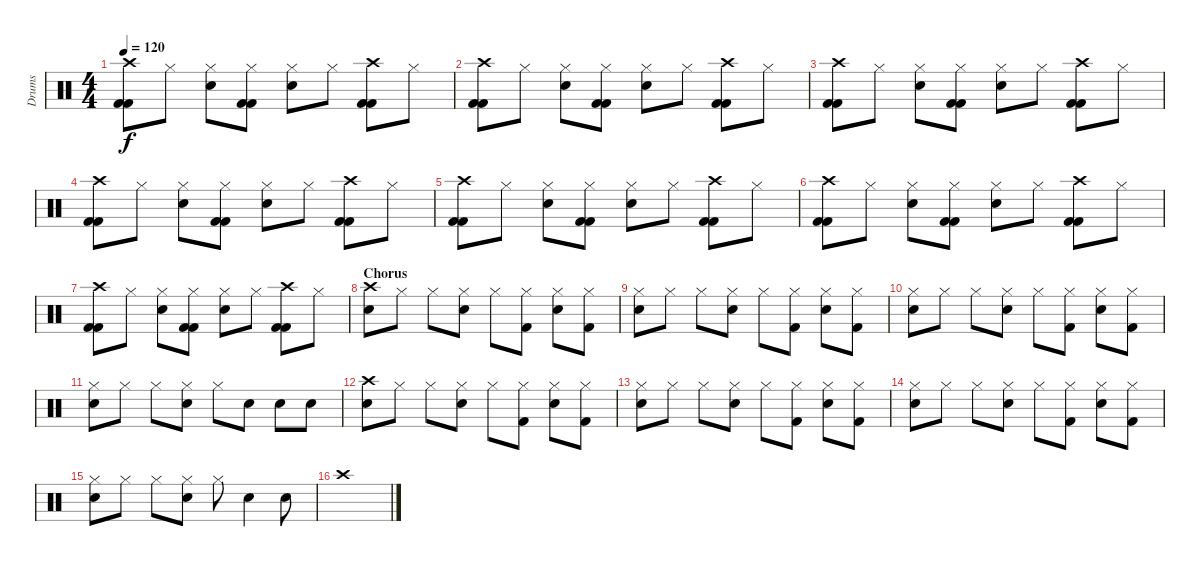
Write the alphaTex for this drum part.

\track ("Drums" "Drums") {instrument percussion}
\staff {score}
\articulation defaults
\ts (4 4)
\tempo 120
\clef neutral
\ks c
("Crash high (hit)" "Kick (hit) 2" "Kick (hit) 2").8{dy f} "Hi-Hat (closed)".8 ("Hi-Hat (closed)" "Snare (hit) 2").8 ("Hi-Hat (closed)" "Kick (hit) 2" "Kick (hit) 2").8 ("Hi-Hat (closed)" "Snare (hit) 2").8 "Hi-Hat (closed)".8 ("Crash high (hit)" "Kick (hit) 2" "Kick (hit) 2").8 "Hi-Hat (closed)".8 |
("Crash high (hit)" "Kick (hit) 2" "Kick (hit) 2").8 "Hi-Hat (closed)".8 ("Hi-Hat (closed)" "Snare (hit) 2").8 ("Hi-Hat (closed)" "Kick (hit) 2" "Kick (hit) 2").8 ("Hi-Hat (closed)" "Snare (hit) 2").8 "Hi-Hat (closed)".8 ("Crash high (hit)" "Kick (hit) 2" "Kick (hit) 2").8 "Hi-Hat (closed)".8 |
("Crash high (hit)" "Kick (hit) 2" "Kick (hit) 2").8 "Hi-Hat (closed)".8 ("Hi-Hat (closed)" "Snare (hit) 2").8 ("Hi-Hat (closed)" "Kick (hit) 2" "Kick (hit) 2").8 ("Hi-Hat (closed)" "Snare (hit) 2").8 "Hi-Hat (closed)".8 ("Crash high (hit)" "Kick (hit) 2" "Kick (hit) 2").8 "Hi-Hat (closed)".8 |
("Crash high (hit)" "Kick (hit) 2" "Kick (hit) 2").8 "Hi-Hat (closed)".8 ("Hi-Hat (closed)" "Snare (hit) 2").8 ("Hi-Hat (closed)" "Kick (hit) 2" "Kick (hit) 2").8 ("Hi-Hat (closed)" "Snare (hit) 2").8 "Hi-Hat (closed)".8 ("Crash high (hit)" "Kick (hit) 2" "Kick (hit) 2").8 "Hi-Hat (closed)".8 |
("Crash high (hit)" "Kick (hit) 2" "Kick (hit) 2").8 "Hi-Hat (closed)".8 ("Hi-Hat (closed)" "Snare (hit) 2").8 ("Hi-Hat (closed)" "Kick (hit) 2" "Kick (hit) 2").8 ("Hi-Hat (closed)" "Snare (hit) 2").8 "Hi-Hat (closed)".8 ("Crash high (hit)" "Kick (hit) 2" "Kick (hit) 2").8 "Hi-Hat (closed)".8 |
("Crash high (hit)" "Kick (hit) 2" "Kick (hit) 2").8 "Hi-Hat (closed)".8 ("Hi-Hat (closed)" "Snare (hit) 2").8 ("Hi-Hat (closed)" "Kick (hit) 2" "Kick (hit) 2").8 ("Hi-Hat (closed)" "Snare (hit) 2").8 "Hi-Hat (closed)".8 ("Crash high (hit)" "Kick (hit) 2" "Kick (hit) 2").8 "Hi-Hat (closed)".8 |
("Crash high (hit)" "Kick (hit) 2" "Kick (hit) 2").8 "Hi-Hat (closed)".8 ("Hi-Hat (closed)" "Snare (hit) 2").8 ("Hi-Hat (closed)" "Kick (hit) 2" "Kick (hit) 2").8 ("Hi-Hat (closed)" "Snare (hit) 2").8 "Hi-Hat (closed)".8 ("Crash high (hit)" "Kick (hit) 2" "Kick (hit) 2").8 "Hi-Hat (closed)".8 |
\section ("" "Chorus")
("Crash high (hit)" "Snare (hit) 2").8 "Hi-Hat (closed)".8 "Hi-Hat (closed)".8 ("Hi-Hat (closed)" "Snare (hit) 2").8 "Hi-Hat (closed)".8 ("Hi-Hat (closed)" "Kick (hit) 2").8 ("Hi-Hat (closed)" "Snare (hit) 2").8 ("Hi-Hat (closed)" "Kick (hit) 2").8 |
("Hi-Hat (closed)" "Snare (hit) 2").8 "Hi-Hat (closed)".8 "Hi-Hat (closed)".8 ("Hi-Hat (closed)" "Snare (hit) 2").8 "Hi-Hat (closed)".8 ("Hi-Hat (closed)" "Kick (hit) 2").8 ("Hi-Hat (closed)" "Snare (hit) 2").8 ("Hi-Hat (closed)" "Kick (hit) 2").8 |
("Hi-Hat (closed)" "Snare (hit) 2").8 "Hi-Hat (closed)".8 "Hi-Hat (closed)".8 ("Hi-Hat (closed)" "Snare (hit) 2").8 "Hi-Hat (closed)".8 ("Hi-Hat (closed)" "Kick (hit) 2").8 ("Hi-Hat (closed)" "Snare (hit) 2").8 ("Hi-Hat (closed)" "Kick (hit) 2").8 |
("Hi-Hat (closed)" "Snare (hit) 2").8 "Hi-Hat (closed)".8 "Hi-Hat (closed)".8 ("Hi-Hat (closed)" "Snare (hit) 2").8 "Hi-Hat (closed)".8 "Snare (hit) 2".8 "Snare (hit) 2".8 "Snare (hit) 2".8 |
("Crash high (hit)" "Snare (hit) 2").8 "Hi-Hat (closed)".8 "Hi-Hat (closed)".8 ("Hi-Hat (closed)" "Snare (hit) 2").8 "Hi-Hat (closed)".8 ("Hi-Hat (closed)" "Kick (hit) 2").8 ("Hi-Hat (closed)" "Snare (hit) 2").8 ("Hi-Hat (closed)" "Kick (hit) 2").8 |
("Hi-Hat (closed)" "Snare (hit) 2").8 "Hi-Hat (closed)".8 "Hi-Hat (closed)".8 ("Hi-Hat (closed)" "Snare (hit) 2").8 "Hi-Hat (closed)".8 ("Hi-Hat (closed)" "Kick (hit) 2").8 ("Hi-Hat (closed)" "Snare (hit) 2").8 ("Hi-Hat (closed)" "Kick (hit) 2").8 |
("Hi-Hat (closed)" "Snare (hit) 2").8 "Hi-Hat (closed)".8 "Hi-Hat (closed)".8 ("Hi-Hat (closed)" "Snare (hit) 2").8 "Hi-Hat (closed)".8 ("Hi-Hat (closed)" "Kick (hit) 2").8 ("Hi-Hat (closed)" "Snare (hit) 2").8 ("Hi-Hat (closed)" "Kick (hit) 2").8 |
("Hi-Hat (closed)" "Snare (hit) 2").8 "Hi-Hat (closed)".8 "Hi-Hat (closed)".8 ("Hi-Hat (closed)" "Snare (hit) 2").8 "Hi-Hat (closed)".8 "Snare (hit) 2".4 "Snare (hit) 2".8 |
"Crash high (hit)".1
